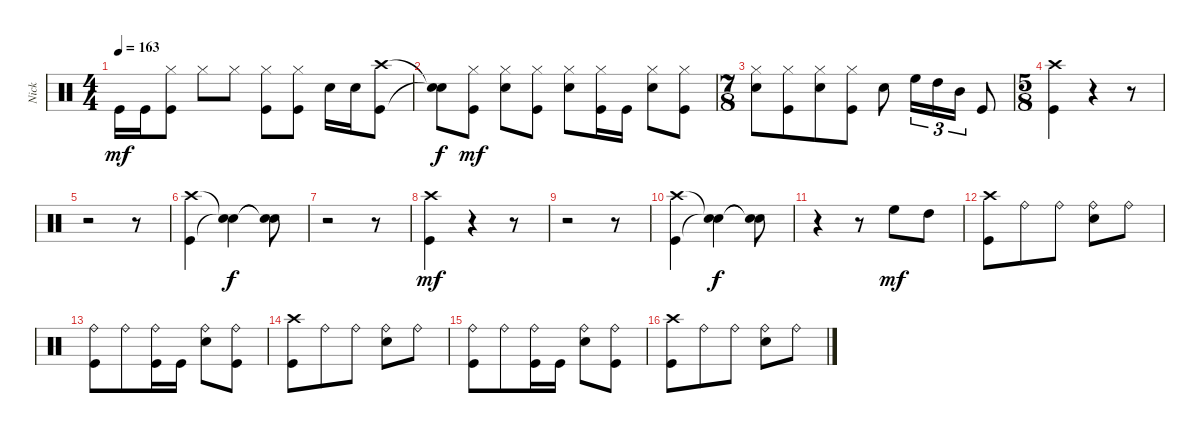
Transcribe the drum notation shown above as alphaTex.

\track ("Nick" "Nick") {instrument percussion}
\staff {score}
\articulation defaults
\ts (4 4)
\tempo 163
\clef neutral
\ks c "Kick (hit)".16{dy mf} "Kick (hit)".16
("Kick (hit)" "Hi-Hat (closed)").8 "Hi-Hat (closed)".8 "Hi-Hat (closed)".8 ("Kick (hit)" "Hi-Hat (closed)").8 ("Kick (hit)" "Hi-Hat (closed)").8 "Snare (hit) 2".16 "Snare (hit) 2".16 ("Kick (hit)" "Crash high (hit)").8 |
("Snare (hit)"{t} "Snare (hit)"{t}).8{dy f} ("Kick (hit)" "Hi-Hat (closed)").8{dy mf} ("Hi-Hat (closed)" "Snare (hit) 2").8 ("Kick (hit)" "Hi-Hat (closed)").8 ("Hi-Hat (closed)" "Snare (hit) 2").8 ("Kick (hit)" "Hi-Hat (closed)").16 "Kick (hit)".16 ("Hi-Hat (closed)" "Snare (hit) 2").8 ("Kick (hit)" "Hi-Hat (closed)").8 |
\ts (7 8)
("Hi-Hat (closed)" "Snare (hit) 2").8 ("Kick (hit)" "Hi-Hat (closed)").8 ("Hi-Hat (closed)" "Snare (hit) 2").8 ("Kick (hit)" "Hi-Hat (closed)").8 "Snare (hit) 2".8 "High Floor Tom (hit)".16{tu (3 2)} "High Tom (hit)".16{tu (3 2)} "Mid Tom (hit)".16{tu (3 2)} "Kick (hit)".8 |
\ts (5 8)
("Kick (hit)" "Crash high (hit)").4 r.4 r.8 |
r.2 r.8 |
("Kick (hit)" "Crash high (hit)").4 ("Snare (hit)"{t} "Snare (hit)"{t}).4{dy f} ("Snare (hit)"{t} "Snare (hit)"{t}).8 |
r.2 r.8 |
("Kick (hit)" "Crash high (hit)").4{dy mf} r.4 r.8 |
r.2 r.8 |
("Kick (hit)" "Crash high (hit)").4 ("Snare (hit)"{t} "Snare (hit)"{t}).4{dy f} ("Snare (hit)"{t} "Snare (hit)"{t}).8 |
r.4 r.8 "High Floor Tom (hit)".8{dy mf} "High Tom (hit)".8 |
("Kick (hit)" "Crash high (hit)").8 "Ride (bell)".8 "Ride (bell)".8 ("Ride (bell)" "Snare (hit) 2").8 "Ride (bell)".8 |
("Kick (hit)" "Ride (bell)").8 "Ride (bell)".8 ("Kick (hit)" "Ride (bell)").16 "Kick (hit)".16 ("Ride (bell)" "Snare (hit) 2").8 ("Kick (hit)" "Ride (bell)").8 |
("Kick (hit)" "Crash high (hit)").8 "Ride (bell)".8 "Ride (bell)".8 ("Ride (bell)" "Snare (hit) 2").8 "Ride (bell)".8 |
("Kick (hit)" "Ride (bell)").8 "Ride (bell)".8 ("Kick (hit)" "Ride (bell)").16 "Kick (hit)".16 ("Ride (bell)" "Snare (hit) 2").8 ("Kick (hit)" "Ride (bell)").8 |
("Kick (hit)" "Crash high (hit)").8 "Ride (bell)".8 "Ride (bell)".8 ("Ride (bell)" "Snare (hit) 2").8 "Ride (bell)".8
